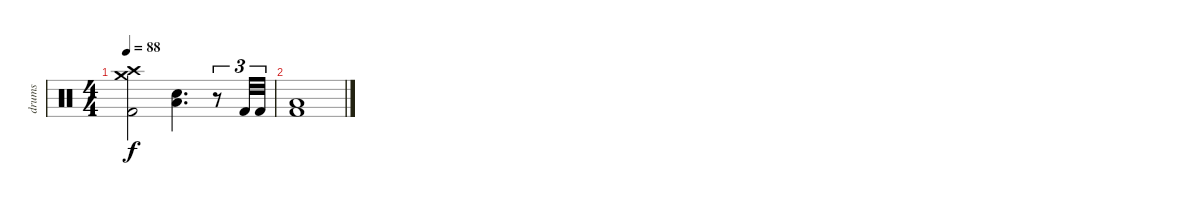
\track ("drums" "drums") {instrument percussion}
\staff {score}
\articulation defaults
\ts (4 4)
\tempo 88
\clef neutral
\ks c
("Crash medium (hit)" "Crash high (hit)" "Kick (hit) 2").2{dy f} ("Low Tom (hit)" "Snare (hit) 2").4{d} r.8{tu (3 2)} "Kick (hit) 2".32{tu (3 2)} "Kick (hit) 2".32{tu (3 2)} |
("Low Floor Tom (hit)" "Kick (hit) 2").1
